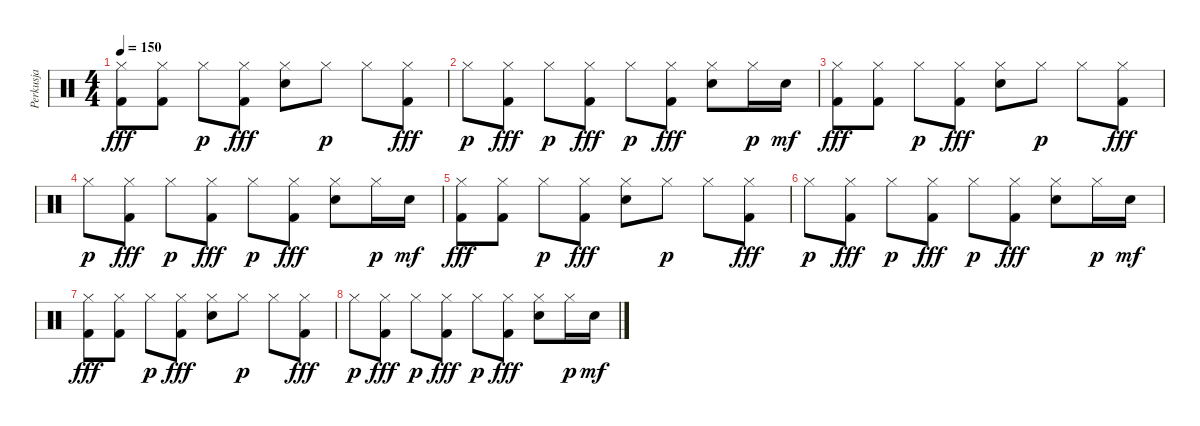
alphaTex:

\track ("Perkusja" "Perkusja") {instrument percussion}
\staff {score}
\articulation defaults
\ts (4 4)
\tempo 150
\clef neutral
\ks c
("Hi-Hat (closed)" "Kick (hit) 2").8{dy fff} ("Hi-Hat (closed)" "Kick (hit) 2").8 "Hi-Hat (closed)".8{dy p} ("Hi-Hat (closed)" "Kick (hit) 2").8{dy fff} ("Hi-Hat (closed)" "Electric Snare (hit)").8 "Hi-Hat (closed)".8{dy p} "Hi-Hat (closed)".8 ("Hi-Hat (closed)" "Kick (hit) 2").8{dy fff} |
"Hi-Hat (closed)".8{dy p} ("Hi-Hat (closed)" "Kick (hit) 2").8{dy fff} "Hi-Hat (closed)".8{dy p} ("Hi-Hat (closed)" "Kick (hit) 2").8{dy fff} "Hi-Hat (closed)".8{dy p} ("Hi-Hat (closed)" "Kick (hit) 2").8{dy fff} ("Hi-Hat (closed)" "Electric Snare (hit)").8 "Hi-Hat (closed)".16{dy p} "Electric Snare (hit)".16{dy mf} |
("Hi-Hat (closed)" "Kick (hit) 2").8{dy fff} ("Hi-Hat (closed)" "Kick (hit) 2").8 "Hi-Hat (closed)".8{dy p} ("Hi-Hat (closed)" "Kick (hit) 2").8{dy fff} ("Hi-Hat (closed)" "Electric Snare (hit)").8 "Hi-Hat (closed)".8{dy p} "Hi-Hat (closed)".8 ("Hi-Hat (closed)" "Kick (hit) 2").8{dy fff} |
"Hi-Hat (closed)".8{dy p} ("Hi-Hat (closed)" "Kick (hit) 2").8{dy fff} "Hi-Hat (closed)".8{dy p} ("Hi-Hat (closed)" "Kick (hit) 2").8{dy fff} "Hi-Hat (closed)".8{dy p} ("Hi-Hat (closed)" "Kick (hit) 2").8{dy fff} ("Hi-Hat (closed)" "Electric Snare (hit)").8 "Hi-Hat (closed)".16{dy p} "Electric Snare (hit)".16{dy mf} |
("Hi-Hat (closed)" "Kick (hit) 2").8{dy fff} ("Hi-Hat (closed)" "Kick (hit) 2").8 "Hi-Hat (closed)".8{dy p} ("Hi-Hat (closed)" "Kick (hit) 2").8{dy fff} ("Hi-Hat (closed)" "Electric Snare (hit)").8 "Hi-Hat (closed)".8{dy p} "Hi-Hat (closed)".8 ("Hi-Hat (closed)" "Kick (hit) 2").8{dy fff} |
"Hi-Hat (closed)".8{dy p} ("Hi-Hat (closed)" "Kick (hit) 2").8{dy fff} "Hi-Hat (closed)".8{dy p} ("Hi-Hat (closed)" "Kick (hit) 2").8{dy fff} "Hi-Hat (closed)".8{dy p} ("Hi-Hat (closed)" "Kick (hit) 2").8{dy fff} ("Hi-Hat (closed)" "Electric Snare (hit)").8 "Hi-Hat (closed)".16{dy p} "Electric Snare (hit)".16{dy mf} |
("Hi-Hat (closed)" "Kick (hit) 2").8{dy fff} ("Hi-Hat (closed)" "Kick (hit) 2").8 "Hi-Hat (closed)".8{dy p} ("Hi-Hat (closed)" "Kick (hit) 2").8{dy fff} ("Hi-Hat (closed)" "Electric Snare (hit)").8 "Hi-Hat (closed)".8{dy p} "Hi-Hat (closed)".8 ("Hi-Hat (closed)" "Kick (hit) 2").8{dy fff} |
"Hi-Hat (closed)".8{dy p} ("Hi-Hat (closed)" "Kick (hit) 2").8{dy fff} "Hi-Hat (closed)".8{dy p} ("Hi-Hat (closed)" "Kick (hit) 2").8{dy fff} "Hi-Hat (closed)".8{dy p} ("Hi-Hat (closed)" "Kick (hit) 2").8{dy fff} ("Hi-Hat (closed)" "Electric Snare (hit)").8 "Hi-Hat (closed)".16{dy p} "Electric Snare (hit)".16{dy mf}
